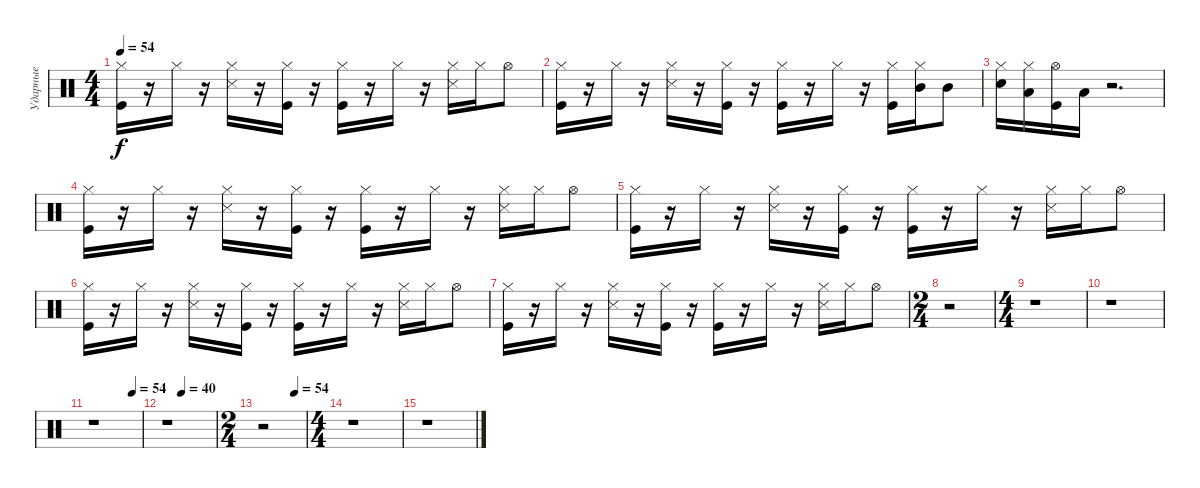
\track ("Ударные" "Ударные") {instrument percussion}
\staff {score}
\articulation defaults
\ts (4 4)
\tempo 54
\clef neutral
\ks c
("Kick (hit)" "Hi-Hat (closed)").16{dy f} r.16 "Hi-Hat (closed)".16 r.16 ("Snare (side stick) 3" "Hi-Hat (closed)").16 r.16 ("Kick (hit)" "Hi-Hat (closed)").16 r.16 ("Kick (hit)" "Hi-Hat (closed)").16 r.16 "Hi-Hat (closed)".16 r.16 ("Hi-Hat (closed)" "Snare (side stick) 3").16 "Hi-Hat (closed)".16 "Hi-Hat (open)".8 |
("Kick (hit)" "Hi-Hat (closed)").16 r.16 "Hi-Hat (closed)".16 r.16 ("Snare (side stick) 3" "Hi-Hat (closed)").16 r.16 ("Kick (hit)" "Hi-Hat (closed)").16 r.16 ("Kick (hit)" "Hi-Hat (closed)").16 r.16 "Hi-Hat (closed)".16 r.16 ("Hi-Hat (closed)" "Kick (hit)").16 ("Hi-Hat (closed)" "Mid Tom (hit)").16 "Mid Tom (hit)".8 |
("Hi-Hat (closed)" "Snare (hit) 2").16 ("Hi-Hat (closed)" "Low Tom (hit)").16 ("Hi-Hat (open)" "Kick (hit)").16 "Low Tom (hit)".16 r.2{d} |
("Kick (hit)" "Hi-Hat (closed)").16 r.16 "Hi-Hat (closed)".16 r.16 ("Snare (side stick) 3" "Hi-Hat (closed)").16 r.16 ("Kick (hit)" "Hi-Hat (closed)").16 r.16 ("Kick (hit)" "Hi-Hat (closed)").16 r.16 "Hi-Hat (closed)".16 r.16 ("Hi-Hat (closed)" "Snare (side stick) 3").16 "Hi-Hat (closed)".16 "Hi-Hat (open)".8 |
("Kick (hit)" "Hi-Hat (closed)").16 r.16 "Hi-Hat (closed)".16 r.16 ("Snare (side stick) 3" "Hi-Hat (closed)").16 r.16 ("Kick (hit)" "Hi-Hat (closed)").16 r.16 ("Kick (hit)" "Hi-Hat (closed)").16 r.16 "Hi-Hat (closed)".16 r.16 ("Hi-Hat (closed)" "Snare (side stick) 3").16 "Hi-Hat (closed)".16 "Hi-Hat (open)".8 |
("Kick (hit)" "Hi-Hat (closed)").16 r.16 "Hi-Hat (closed)".16 r.16 ("Snare (side stick) 3" "Hi-Hat (closed)").16 r.16 ("Kick (hit)" "Hi-Hat (closed)").16 r.16 ("Kick (hit)" "Hi-Hat (closed)").16 r.16 "Hi-Hat (closed)".16 r.16 ("Hi-Hat (closed)" "Snare (side stick) 3").16 "Hi-Hat (closed)".16 "Hi-Hat (open)".8 |
("Kick (hit)" "Hi-Hat (closed)").16 r.16 "Hi-Hat (closed)".16 r.16 ("Snare (side stick) 3" "Hi-Hat (closed)").16 r.16 ("Kick (hit)" "Hi-Hat (closed)").16 r.16 ("Kick (hit)" "Hi-Hat (closed)").16 r.16 "Hi-Hat (closed)".16 r.16 ("Hi-Hat (closed)" "Snare (side stick) 3").16 "Hi-Hat (closed)".16 "Hi-Hat (open)".8 |
\ts (2 4)
r.2 |
\ts (4 4)
r.1 |
r.1 |
\tempo (54 0.8125)
r.1 |
\tempo (40 0.3125)
r.1 |
\ts (2 4)
\tempo (54 0.75)
r.2 |
\ts (4 4)
r.1 |
r.1
